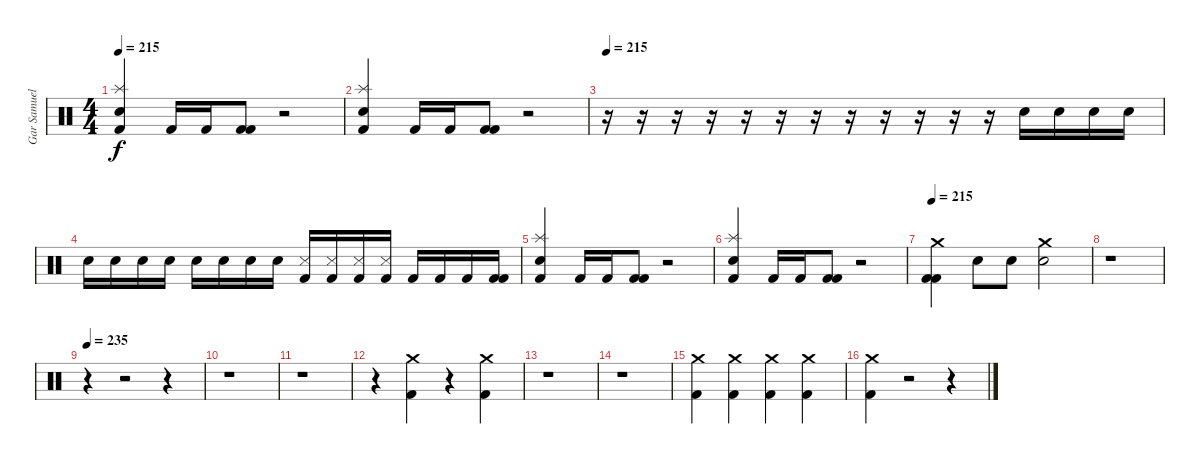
\track ("Gar Samuelson (Drums)" "Gar Samuel") {instrument percussion}
\staff {score}
\articulation defaults
\ts (4 4)
\tempo 215
\clef neutral
\ks c
("Electric Snare (hit)" "Splash (hit)" "Kick (hit) 2").4{dy f} "Kick (hit) 2".16 "Kick (hit) 2".16 ("Kick (hit) 2" "Kick (hit) 2").8 r.2 |
("Electric Snare (hit)" "Splash (hit)" "Kick (hit) 2").4 "Kick (hit) 2".16 "Kick (hit) 2".16 ("Kick (hit) 2" "Kick (hit) 2").8 r.2 |
\tempo 215
r.16 r.16 r.16 r.16 r.16 r.16 r.16 r.16 r.16 r.16 r.16 r.16 "Electric Snare (hit)".16 "Electric Snare (hit)".16 "Electric Snare (hit)".16 "Electric Snare (hit)".16 |
"Electric Snare (hit)".16 "Electric Snare (hit)".16 "Electric Snare (hit)".16 "Electric Snare (hit)".16 "Snare (hit) 2".16 "Snare (hit) 2".16 "Snare (hit) 2".16 "Snare (hit) 2".16 ("Snare (side stick) 3" "Kick (hit) 2").16 ("Snare (side stick) 3" "Kick (hit) 2").16 ("Snare (side stick) 3" "Kick (hit) 2").16 ("Snare (side stick) 3" "Kick (hit) 2").16 "Kick (hit) 2".16 "Kick (hit) 2".16 "Kick (hit) 2".16 ("Kick (hit) 2" "Kick (hit) 2").16 |
("Electric Snare (hit)" "Splash (hit)" "Kick (hit) 2").4 "Kick (hit) 2".16 "Kick (hit) 2".16 ("Kick (hit) 2" "Kick (hit) 2").8 r.2 |
("Electric Snare (hit)" "Splash (hit)" "Kick (hit) 2").4 "Kick (hit) 2".16 "Kick (hit) 2".16 ("Kick (hit) 2" "Kick (hit) 2").8 r.2 |
\tempo 215
("Kick (hit) 2" "Crash medium (hit)" "Kick (hit) 2").4 "Electric Snare (hit)".8 "Electric Snare (hit)".8 ("Electric Snare (hit)" "Crash medium (hit)").2 |
r.1 |
\tempo 235
r.4 r.2 r.4 |
r.1 |
r.1 |
r.4 ("Kick (hit) 2" "Crash medium (hit)").4 r.4 ("Kick (hit) 2" "Crash medium (hit)").4 |
r.1 |
r.1 |
("Kick (hit) 2" "Crash medium (hit)").4 ("Kick (hit) 2" "Crash medium (hit)").4 ("Kick (hit) 2" "Crash medium (hit)").4 ("Kick (hit) 2" "Crash medium (hit)").4 |
("Kick (hit) 2" "Crash medium (hit)").4 r.2 r.4
